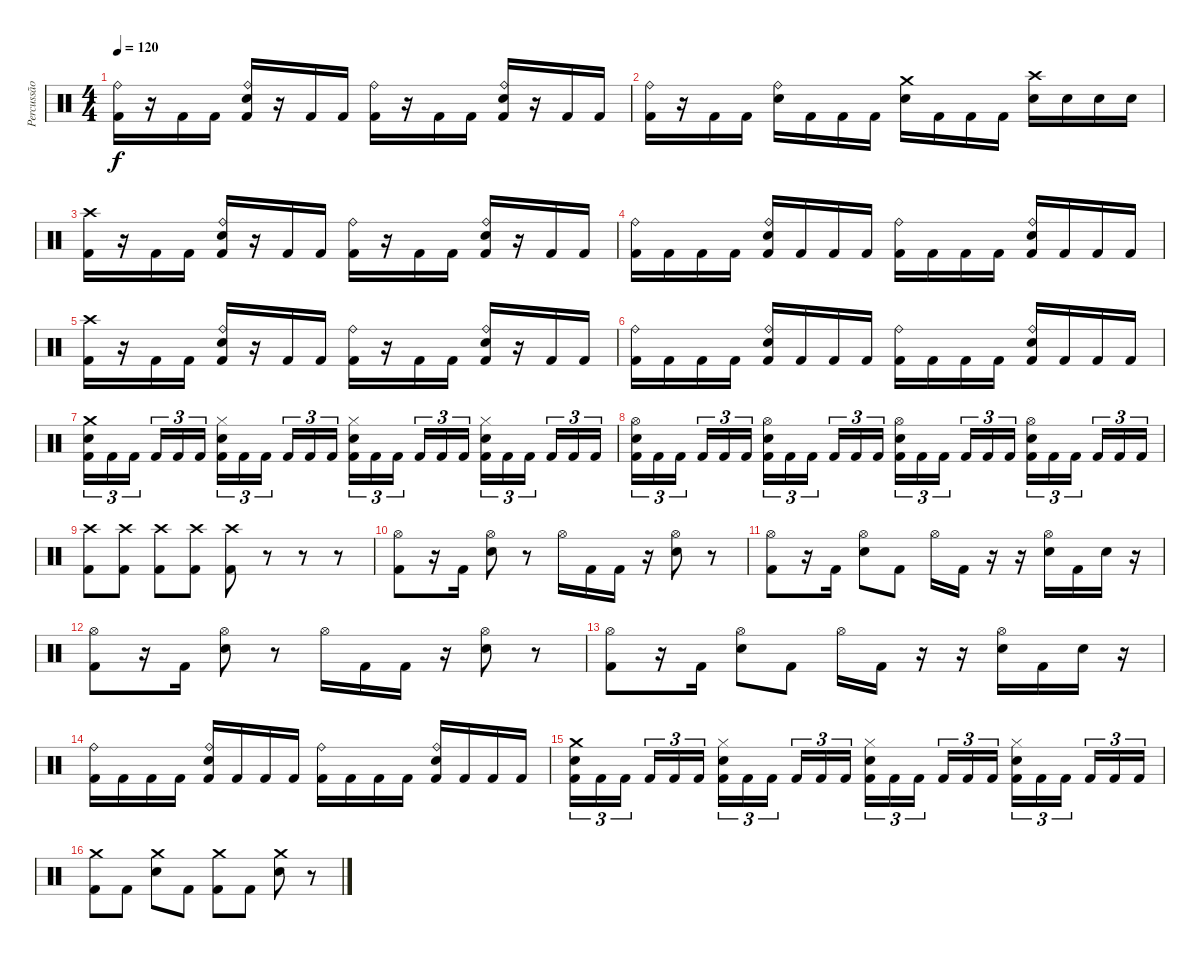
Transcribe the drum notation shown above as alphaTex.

\track ("Percussão" "Percussão") {instrument percussion}
\staff {score}
\articulation defaults
\ts (4 4)
\tempo 120
\clef neutral
\ks c
("Kick (hit) 2" "Ride (bell)").16{dy f} r.16 "Kick (hit) 2".16 "Kick (hit) 2".16 ("Kick (hit) 2" "Snare (hit) 2" "Ride (bell)").16 r.16 "Kick (hit) 2".16 "Kick (hit) 2".16 ("Kick (hit) 2" "Ride (bell)").16 r.16 "Kick (hit) 2".16 "Kick (hit) 2".16 ("Kick (hit) 2" "Snare (hit) 2" "Ride (bell)").16 r.16 "Kick (hit) 2".16 "Kick (hit) 2".16 |
("Kick (hit) 2" "Ride (bell)").16 r.16 "Kick (hit) 2".16 "Kick (hit) 2".16 ("Snare (hit) 2" "Ride (bell)").16 "Kick (hit) 2".16 "Kick (hit) 2".16 "Kick (hit) 2".16 ("Snare (hit) 2" "Crash medium (hit)").16 "Kick (hit) 2".16 "Kick (hit) 2".16 "Kick (hit) 2".16 ("Snare (hit) 2" "Crash high (hit)").16 "Snare (hit) 2".16 "Snare (hit) 2".16 "Snare (hit) 2".16 |
("Kick (hit) 2" "Crash high (hit)").16 r.16 "Kick (hit) 2".16 "Kick (hit) 2".16 ("Kick (hit) 2" "Snare (hit) 2" "Ride (bell)").16 r.16 "Kick (hit) 2".16 "Kick (hit) 2".16 ("Kick (hit) 2" "Ride (bell)").16 r.16 "Kick (hit) 2".16 "Kick (hit) 2".16 ("Kick (hit) 2" "Snare (hit) 2" "Ride (bell)").16 r.16 "Kick (hit) 2".16 "Kick (hit) 2".16 |
("Kick (hit) 2" "Ride (bell)").16 "Kick (hit) 2".16 "Kick (hit) 2".16 "Kick (hit) 2".16 ("Kick (hit) 2" "Snare (hit) 2" "Ride (bell)").16 "Kick (hit) 2".16 "Kick (hit) 2".16 "Kick (hit) 2".16 ("Kick (hit) 2" "Ride (bell)").16 "Kick (hit) 2".16 "Kick (hit) 2".16 "Kick (hit) 2".16 ("Kick (hit) 2" "Snare (hit) 2" "Ride (bell)").16 "Kick (hit) 2".16 "Kick (hit) 2".16 "Kick (hit) 2".16 |
("Kick (hit) 2" "Crash high (hit)").16 r.16 "Kick (hit) 2".16 "Kick (hit) 2".16 ("Kick (hit) 2" "Snare (hit) 2" "Ride (bell)").16 r.16 "Kick (hit) 2".16 "Kick (hit) 2".16 ("Kick (hit) 2" "Ride (bell)").16 r.16 "Kick (hit) 2".16 "Kick (hit) 2".16 ("Kick (hit) 2" "Snare (hit) 2" "Ride (bell)").16 r.16 "Kick (hit) 2".16 "Kick (hit) 2".16 |
("Kick (hit) 2" "Ride (bell)").16 "Kick (hit) 2".16 "Kick (hit) 2".16 "Kick (hit) 2".16 ("Kick (hit) 2" "Snare (hit) 2" "Ride (bell)").16 "Kick (hit) 2".16 "Kick (hit) 2".16 "Kick (hit) 2".16 ("Kick (hit) 2" "Ride (bell)").16 "Kick (hit) 2".16 "Kick (hit) 2".16 "Kick (hit) 2".16 ("Kick (hit) 2" "Snare (hit) 2" "Ride (bell)").16 "Kick (hit) 2".16 "Kick (hit) 2".16 "Kick (hit) 2".16 |
("Kick (hit) 2" "Snare (hit) 2" "Crash medium (hit)").16{tu (3 2)} "Kick (hit) 2".16{tu (3 2)} "Kick (hit) 2".16{tu (3 2)} "Kick (hit) 2".16{tu (3 2)} "Kick (hit) 2".16{tu (3 2)} "Kick (hit) 2".16{tu (3 2)} ("Kick (hit) 2" "Snare (hit) 2" "Hi-Hat (closed)").16{tu (3 2)} "Kick (hit) 2".16{tu (3 2)} "Kick (hit) 2".16{tu (3 2)} "Kick (hit) 2".16{tu (3 2)} "Kick (hit) 2".16{tu (3 2)} "Kick (hit) 2".16{tu (3 2)} ("Kick (hit) 2" "Snare (hit) 2" "Hi-Hat (closed)").16{tu (3 2)} "Kick (hit) 2".16{tu (3 2)} "Kick (hit) 2".16{tu (3 2)} "Kick (hit) 2".16{tu (3 2)} "Kick (hit) 2".16{tu (3 2)} "Kick (hit) 2".16{tu (3 2)} ("Kick (hit) 2" "Snare (hit) 2" "Hi-Hat (closed)").16{tu (3 2)} "Kick (hit) 2".16{tu (3 2)} "Kick (hit) 2".16{tu (3 2)} "Kick (hit) 2".16{tu (3 2)} "Kick (hit) 2".16{tu (3 2)} "Kick (hit) 2".16{tu (3 2)} |
("Kick (hit) 2" "Snare (hit) 2" "Hi-Hat (open)").16{tu (3 2)} "Kick (hit) 2".16{tu (3 2)} "Kick (hit) 2".16{tu (3 2)} "Kick (hit) 2".16{tu (3 2)} "Kick (hit) 2".16{tu (3 2)} "Kick (hit) 2".16{tu (3 2)} ("Kick (hit) 2" "Snare (hit) 2" "Hi-Hat (open)").16{tu (3 2)} "Kick (hit) 2".16{tu (3 2)} "Kick (hit) 2".16{tu (3 2)} "Kick (hit) 2".16{tu (3 2)} "Kick (hit) 2".16{tu (3 2)} "Kick (hit) 2".16{tu (3 2)} ("Kick (hit) 2" "Snare (hit) 2" "Hi-Hat (open)").16{tu (3 2)} "Kick (hit) 2".16{tu (3 2)} "Kick (hit) 2".16{tu (3 2)} "Kick (hit) 2".16{tu (3 2)} "Kick (hit) 2".16{tu (3 2)} "Kick (hit) 2".16{tu (3 2)} ("Kick (hit) 2" "Snare (hit) 2" "Hi-Hat (open)").16{tu (3 2)} "Kick (hit) 2".16{tu (3 2)} "Kick (hit) 2".16{tu (3 2)} "Kick (hit) 2".16{tu (3 2)} "Kick (hit) 2".16{tu (3 2)} "Kick (hit) 2".16{tu (3 2)} |
("Kick (hit) 2" "Crash high (hit)").8 ("Kick (hit) 2" "Crash high (hit)").8 ("Kick (hit) 2" "Crash high (hit)").8 ("Kick (hit) 2" "Crash high (hit)").8 ("Kick (hit) 2" "Crash high (hit)").8 r.8 r.8 r.8 |
("Kick (hit) 2" "Hi-Hat (open)").8 r.16 "Kick (hit) 2".16 ("Snare (hit) 2" "Hi-Hat (open)").8 r.8 "Hi-Hat (open)".16 "Kick (hit) 2".16 "Kick (hit) 2".16 r.16 ("Snare (hit) 2" "Hi-Hat (open)").8 r.8 |
("Kick (hit) 2" "Hi-Hat (open)").8 r.16 "Kick (hit) 2".16 ("Snare (hit) 2" "Hi-Hat (open)").8 "Kick (hit) 2".8 "Hi-Hat (open)".16 "Kick (hit) 2".16 r.16 r.16 ("Snare (hit) 2" "Hi-Hat (open)").16 "Kick (hit) 2".16 "Snare (hit) 2".16 r.16 |
("Kick (hit) 2" "Hi-Hat (open)").8 r.16 "Kick (hit) 2".16 ("Snare (hit) 2" "Hi-Hat (open)").8 r.8 "Hi-Hat (open)".16 "Kick (hit) 2".16 "Kick (hit) 2".16 r.16 ("Snare (hit) 2" "Hi-Hat (open)").8 r.8 |
("Kick (hit) 2" "Hi-Hat (open)").8 r.16 "Kick (hit) 2".16 ("Snare (hit) 2" "Hi-Hat (open)").8 "Kick (hit) 2".8 "Hi-Hat (open)".16 "Kick (hit) 2".16 r.16 r.16 ("Snare (hit) 2" "Hi-Hat (open)").16 "Kick (hit) 2".16 "Snare (hit) 2".16 r.16 |
("Kick (hit) 2" "Ride (bell)").16 "Kick (hit) 2".16 "Kick (hit) 2".16 "Kick (hit) 2".16 ("Kick (hit) 2" "Snare (hit) 2" "Ride (bell)").16 "Kick (hit) 2".16 "Kick (hit) 2".16 "Kick (hit) 2".16 ("Kick (hit) 2" "Ride (bell)").16 "Kick (hit) 2".16 "Kick (hit) 2".16 "Kick (hit) 2".16 ("Kick (hit) 2" "Snare (hit) 2" "Ride (bell)").16 "Kick (hit) 2".16 "Kick (hit) 2".16 "Kick (hit) 2".16 |
("Kick (hit) 2" "Snare (hit) 2" "Crash medium (hit)").16{tu (3 2)} "Kick (hit) 2".16{tu (3 2)} "Kick (hit) 2".16{tu (3 2)} "Kick (hit) 2".16{tu (3 2)} "Kick (hit) 2".16{tu (3 2)} "Kick (hit) 2".16{tu (3 2)} ("Kick (hit) 2" "Snare (hit) 2" "Hi-Hat (closed)").16{tu (3 2)} "Kick (hit) 2".16{tu (3 2)} "Kick (hit) 2".16{tu (3 2)} "Kick (hit) 2".16{tu (3 2)} "Kick (hit) 2".16{tu (3 2)} "Kick (hit) 2".16{tu (3 2)} ("Kick (hit) 2" "Snare (hit) 2" "Hi-Hat (closed)").16{tu (3 2)} "Kick (hit) 2".16{tu (3 2)} "Kick (hit) 2".16{tu (3 2)} "Kick (hit) 2".16{tu (3 2)} "Kick (hit) 2".16{tu (3 2)} "Kick (hit) 2".16{tu (3 2)} ("Kick (hit) 2" "Snare (hit) 2" "Hi-Hat (closed)").16{tu (3 2)} "Kick (hit) 2".16{tu (3 2)} "Kick (hit) 2".16{tu (3 2)} "Kick (hit) 2".16{tu (3 2)} "Kick (hit) 2".16{tu (3 2)} "Kick (hit) 2".16{tu (3 2)} |
("Kick (hit) 2" "Crash medium (hit)").8 "Kick (hit) 2".8 ("Snare (hit) 2" "Crash medium (hit)").8 "Kick (hit) 2".8 ("Kick (hit) 2" "Crash medium (hit)").8 "Kick (hit) 2".8 ("Snare (hit) 2" "Crash medium (hit)").8 r.8
